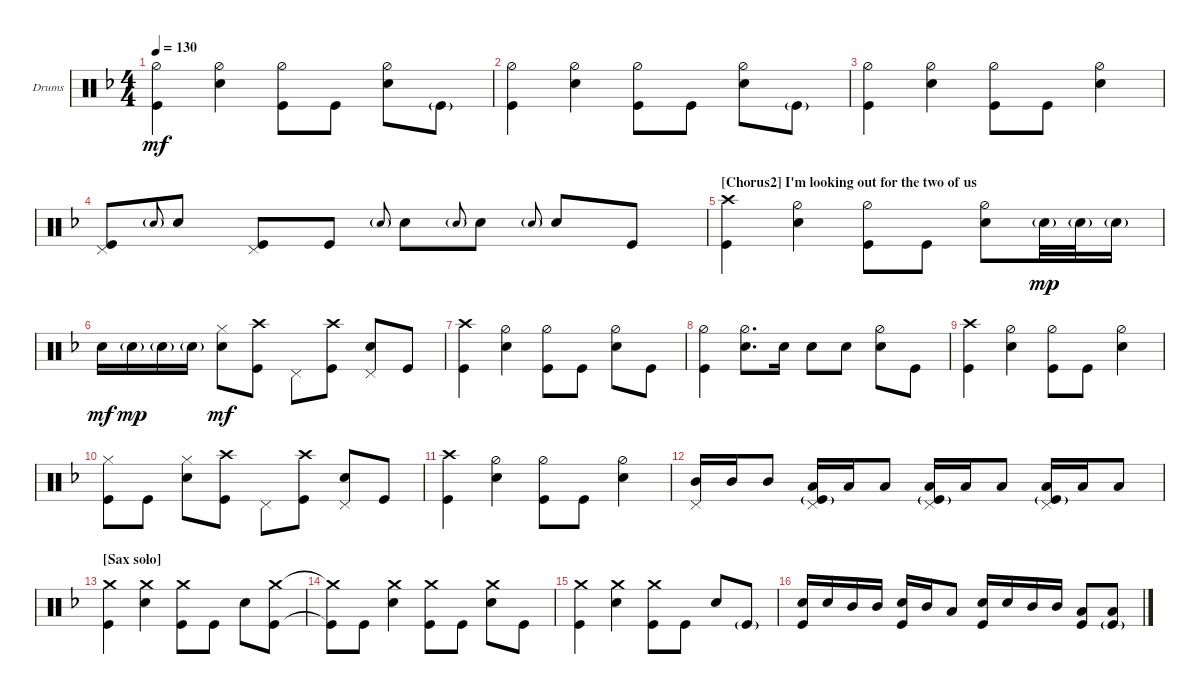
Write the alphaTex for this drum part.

\defaultSystemsLayout 4
\bracketExtendMode groupsimilarinstruments
\firstSystemTrackNameOrientation horizontal
\otherSystemsTrackNameOrientation horizontal
\track ("Drumkit" "Drums") {instrument percussion}
\staff {score}
\articulation defaults
\ts (4 4)
\tempo 130
\clef neutral
\ks dminor
("Kick (hit)" "Hi-Hat (half)").4{dy mf} ("Hi-Hat (half)" "Snare (hit) 2").4 ("Kick (hit)" "Hi-Hat (half)").8 "Kick (hit)".8 ("Snare (hit) 2" "Hi-Hat (half)").8 "Kick (hit)"{g}.8 |
("Kick (hit)" "Hi-Hat (half)").4 ("Hi-Hat (half)" "Snare (hit) 2").4 ("Kick (hit)" "Hi-Hat (half)").8 "Kick (hit)".8 ("Snare (hit) 2" "Hi-Hat (half)").8 "Kick (hit)"{g}.8 |
("Kick (hit)" "Hi-Hat (half)").4 ("Hi-Hat (half)" "Snare (hit) 2").4 ("Kick (hit)" "Hi-Hat (half)").8 "Kick (hit)".8 ("Hi-Hat (half)" "Snare (hit) 2").4 |
("Kick (hit)" "Pedal Hi-Hat (hit)").8 "Snare (hit) 2"{g}.8{gr onbeat} "Snare (hit) 2".8 ("Kick (hit)" "Pedal Hi-Hat (hit)").8 "Kick (hit)".8 "Snare (hit) 2"{g}.8{gr onbeat} "Snare (hit) 2".8 "Snare (hit) 2"{g}.8{gr onbeat} "Snare (hit) 2".8 "Snare (hit) 2"{g}.8{gr onbeat} "Snare (hit) 2".8 "Kick (hit)".8 |
\section ("" "[Chorus2] I'm looking out for the two of us")
("Kick (hit)" "Crash high (hit)").4 ("Hi-Hat (half)" "Snare (hit) 2").4 ("Kick (hit)" "Hi-Hat (half)").8 "Kick (hit)".8 ("Snare (hit) 2" "Hi-Hat (half)").8 "Snare (hit) 2"{g}.32{dy mp} "Snare (hit) 2"{g}.32 "Snare (hit) 2"{g}.16 |
"Snare (hit) 2".16{dy mf} "Snare (hit) 2"{g}.16{dy mp} "Snare (hit) 2"{g}.16 "Snare (hit) 2"{g}.16 ("Snare (hit) 2" "Hi-Hat (closed)").8{dy mf} ("Kick (hit)" "Crash high (hit)").8 "Pedal Hi-Hat (hit)".8 ("Kick (hit)" "Crash high (hit)").8 ("Snare (hit) 2" "Pedal Hi-Hat (hit)").8 "Kick (hit)".8 |
("Kick (hit)" "Crash high (hit)").4 ("Hi-Hat (half)" "Snare (hit) 2").4 ("Kick (hit)" "Hi-Hat (half)").8 "Kick (hit)".8 ("Snare (hit) 2" "Hi-Hat (half)").8 "Kick (hit)".8 |
("Kick (hit)" "Hi-Hat (half)").4 ("Hi-Hat (half)" "Snare (hit) 2").8{d} "Snare (hit) 2".16 "Snare (hit) 2".8 "Snare (hit) 2".8 ("Snare (hit) 2" "Hi-Hat (half)").8 "Kick (hit)".8 |
("Kick (hit)" "Crash high (hit)").4 ("Hi-Hat (half)" "Snare (hit) 2").4 ("Kick (hit)" "Hi-Hat (half)").8 "Kick (hit)".8 ("Snare (hit) 2" "Hi-Hat (half)").4 |
("Kick (hit)" "Hi-Hat (closed)").8 "Kick (hit)".8 ("Snare (hit) 2" "Hi-Hat (closed)").8 ("Kick (hit)" "Crash high (hit)").8 "Pedal Hi-Hat (hit)".8 ("Kick (hit)" "Crash high (hit)").8 ("Snare (hit) 2" "Pedal Hi-Hat (hit)").8 "Kick (hit)".8 |
("Kick (hit)" "Crash high (hit)").4 ("Hi-Hat (half)" "Snare (hit) 2").4 ("Kick (hit)" "Hi-Hat (half)").8 "Kick (hit)".8 ("Snare (hit) 2" "Hi-Hat (half)").4 |
("Mid Tom (hit)" "Pedal Hi-Hat (hit)").16 "Mid Tom (hit)".16 "Mid Tom (hit)".8 ("Low Tom (hit)" "Pedal Hi-Hat (hit)" "Kick (hit)"{g}).16 "Low Tom (hit)".16 "Low Tom (hit)".8 ("Low Tom (hit)" "Pedal Hi-Hat (hit)" "Kick (hit)"{g}).16 "Low Tom (hit)".16 "Low Tom (hit)".8 ("Low Tom (hit)" "Pedal Hi-Hat (hit)" "Kick (hit)"{g}).16 "Low Tom (hit)".16 "Low Tom (hit)".8 |
\section ("" "[Sax solo]   ")
("Crash medium (hit)" "Kick (hit)").4 ("Crash medium (hit)" "Snare (hit) 2").4 ("Crash medium (hit)" "Kick (hit)").8 "Kick (hit)".8 "Snare (hit) 2".8 ("Crash medium (hit)" "Kick (hit)").8 |
("Crash medium (hit)"{t} "Kick (hit)"{t}).8 "Kick (hit)".8 ("Snare (hit) 2" "Crash medium (hit)").4 ("Kick (hit)" "Crash medium (hit)").8 "Kick (hit)".8 ("Snare (hit) 2" "Crash medium (hit)").8 "Kick (hit)".8 |
("Crash medium (hit)" "Kick (hit)").4 ("Crash medium (hit)" "Snare (hit) 2").4 ("Crash medium (hit)" "Kick (hit)").8 "Kick (hit)".8 "Snare (hit) 2".8 "Kick (hit)"{g}.8 |
("Snare (hit) 2" "Kick (hit)").16 "Snare (hit) 2".16 "Mid Tom (hit)".16 "Mid Tom (hit)".16 ("Snare (hit) 2" "Kick (hit)").16 "Mid Tom (hit)".16 "Low Tom (hit)".8 ("Snare (hit) 2" "Kick (hit)").16 "Snare (hit) 2".16 "Mid Tom (hit)".16 "Mid Tom (hit)".16 ("Low Tom (hit)" "Kick (hit)").8 ("Low Tom (hit)" "Kick (hit)"{g}).8
